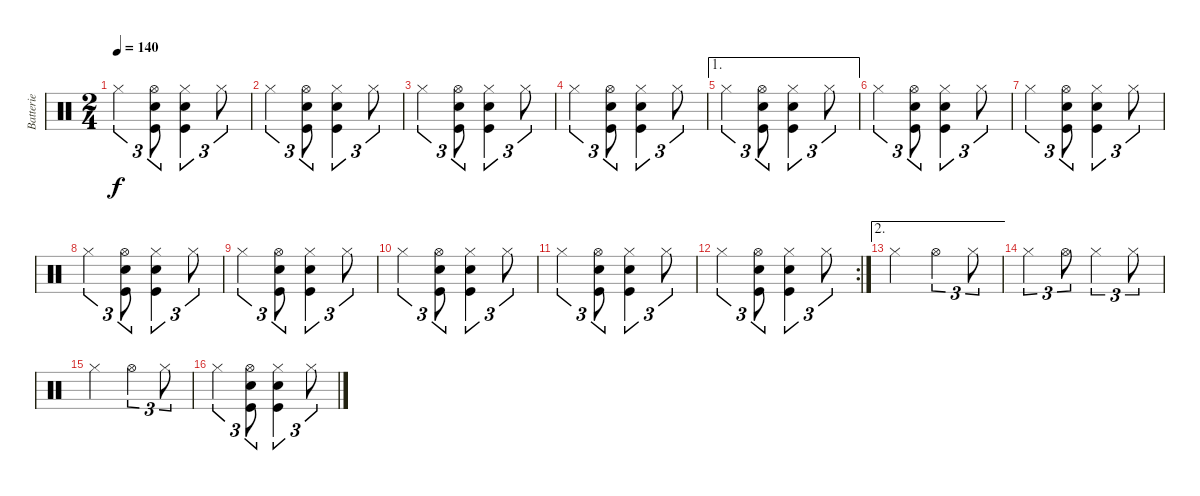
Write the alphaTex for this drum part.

\track ("Batterie" "Batterie") {instrument percussion}
\staff {score}
\articulation defaults
\ts (2 4)
\tempo 140
\clef neutral
\ks c "Hi-Hat (closed)".4{tu (3 2) dy f}
("Hi-Hat (open)" "Snare (hit) 2" "Kick (hit)").8{tu (3 2)} ("Hi-Hat (closed)" "Snare (hit) 2" "Kick (hit)").4{tu (3 2)} "Hi-Hat (closed)".8{tu (3 2)} |
"Hi-Hat (closed)".4{tu (3 2)} ("Hi-Hat (open)" "Snare (hit) 2" "Kick (hit)").8{tu (3 2)} ("Hi-Hat (closed)" "Snare (hit) 2" "Kick (hit)").4{tu (3 2)} "Hi-Hat (closed)".8{tu (3 2)} |
"Hi-Hat (closed)".4{tu (3 2)} ("Hi-Hat (open)" "Snare (hit) 2" "Kick (hit)").8{tu (3 2)} ("Hi-Hat (closed)" "Snare (hit) 2" "Kick (hit)").4{tu (3 2)} "Hi-Hat (closed)".8{tu (3 2)} |
"Hi-Hat (closed)".4{tu (3 2)} ("Hi-Hat (open)" "Snare (hit) 2" "Kick (hit)").8{tu (3 2)} ("Hi-Hat (closed)" "Snare (hit) 2" "Kick (hit)").4{tu (3 2)} "Hi-Hat (closed)".8{tu (3 2)} |
\ae 1 "Hi-Hat (closed)".4{tu (3 2)}
("Hi-Hat (open)" "Snare (hit) 2" "Kick (hit)").8{tu (3 2)} ("Hi-Hat (closed)" "Snare (hit) 2" "Kick (hit)").4{tu (3 2)} "Hi-Hat (closed)".8{tu (3 2)} |
"Hi-Hat (closed)".4{tu (3 2)} ("Hi-Hat (open)" "Snare (hit) 2" "Kick (hit)").8{tu (3 2)} ("Hi-Hat (closed)" "Snare (hit) 2" "Kick (hit)").4{tu (3 2)} "Hi-Hat (closed)".8{tu (3 2)} |
"Hi-Hat (closed)".4{tu (3 2)} ("Hi-Hat (open)" "Snare (hit) 2" "Kick (hit)").8{tu (3 2)} ("Hi-Hat (closed)" "Snare (hit) 2" "Kick (hit)").4{tu (3 2)} "Hi-Hat (closed)".8{tu (3 2)} |
"Hi-Hat (closed)".4{tu (3 2)} ("Hi-Hat (open)" "Snare (hit) 2" "Kick (hit)").8{tu (3 2)} ("Hi-Hat (closed)" "Snare (hit) 2" "Kick (hit)").4{tu (3 2)} "Hi-Hat (closed)".8{tu (3 2)} |
"Hi-Hat (closed)".4{tu (3 2)} ("Hi-Hat (open)" "Snare (hit) 2" "Kick (hit)").8{tu (3 2)} ("Hi-Hat (closed)" "Snare (hit) 2" "Kick (hit)").4{tu (3 2)} "Hi-Hat (closed)".8{tu (3 2)} |
"Hi-Hat (closed)".4{tu (3 2)} ("Hi-Hat (open)" "Snare (hit) 2" "Kick (hit)").8{tu (3 2)} ("Hi-Hat (closed)" "Snare (hit) 2" "Kick (hit)").4{tu (3 2)} "Hi-Hat (closed)".8{tu (3 2)} |
"Hi-Hat (closed)".4{tu (3 2)} ("Hi-Hat (open)" "Snare (hit) 2" "Kick (hit)").8{tu (3 2)} ("Hi-Hat (closed)" "Snare (hit) 2" "Kick (hit)").4{tu (3 2)} "Hi-Hat (closed)".8{tu (3 2)} |
\rc 2 "Hi-Hat (closed)".4{tu (3 2)}
("Hi-Hat (open)" "Snare (hit) 2" "Kick (hit)").8{tu (3 2)} ("Hi-Hat (closed)" "Snare (hit) 2" "Kick (hit)").4{tu (3 2)} "Hi-Hat (closed)".8{tu (3 2)} |
\ae 2 "Hi-Hat (closed)".4 "Hi-Hat (open)".4{tu (3 2)} "Hi-Hat (closed)".8{tu (3 2)}
|
"Hi-Hat (closed)".4{tu (3 2)} "Hi-Hat (open)".8{tu (3 2)} "Hi-Hat (closed)".4{tu (3 2)} "Hi-Hat (closed)".8{tu (3 2)} |
"Hi-Hat (closed)".4 "Hi-Hat (open)".4{tu (3 2)} "Hi-Hat (closed)".8{tu (3 2)} |
"Hi-Hat (closed)".4{tu (3 2)} ("Hi-Hat (open)" "Snare (hit) 2" "Kick (hit)").8{tu (3 2)} ("Hi-Hat (closed)" "Snare (hit) 2" "Kick (hit)").4{tu (3 2)} "Hi-Hat (closed)".8{tu (3 2)}
